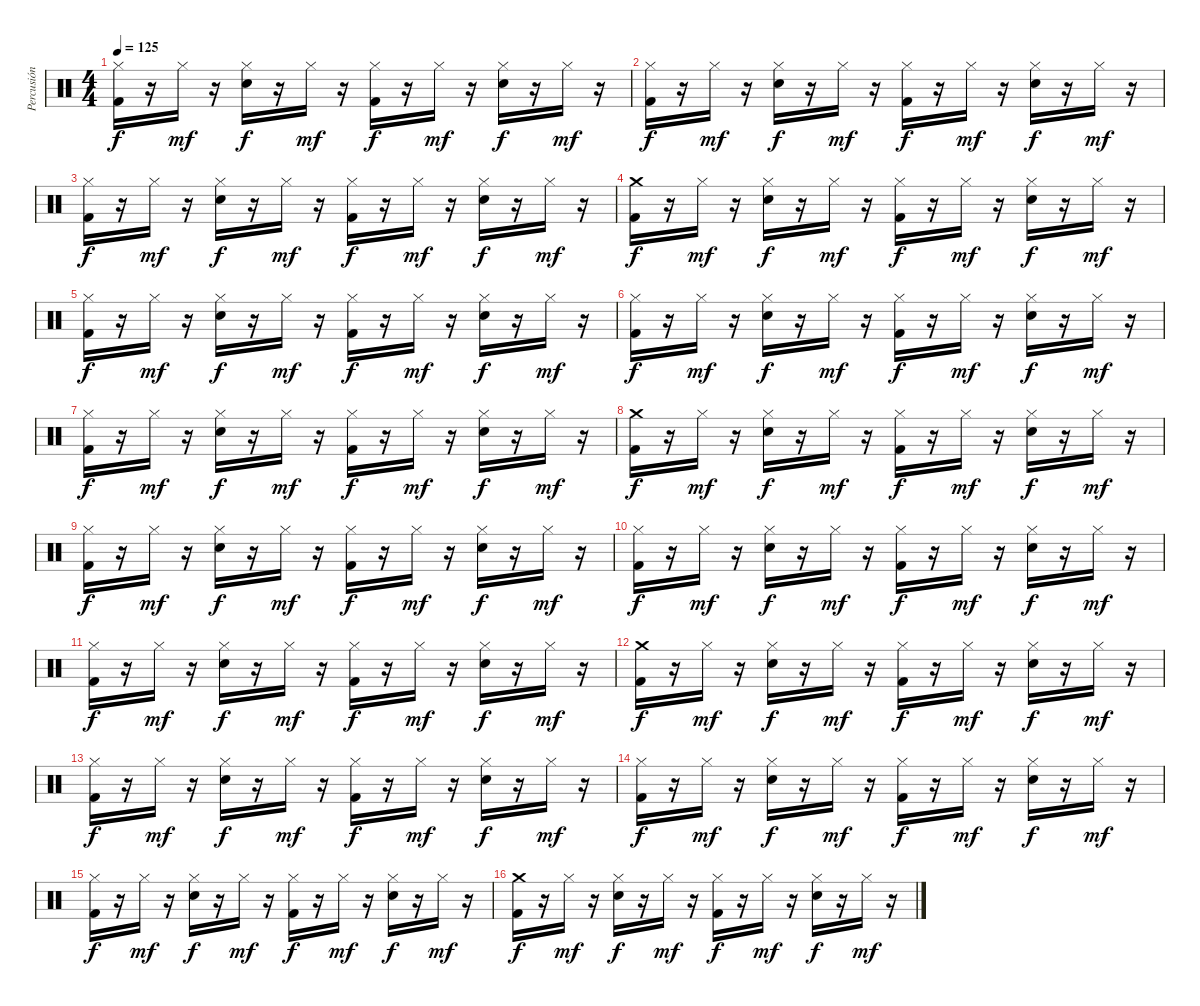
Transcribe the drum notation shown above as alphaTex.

\track ("Percusión" "Percusión") {instrument percussion}
\staff {score}
\articulation defaults
\ts (4 4)
\tempo 125
\clef neutral
\ks c
("Hi-Hat (closed)" "Kick (hit) 2").16{dy f} r.16 "Hi-Hat (closed)".16{dy mf} r.16 ("Hi-Hat (closed)" "Electric Snare (hit)").16{dy f} r.16 "Hi-Hat (closed)".16{dy mf} r.16 ("Hi-Hat (closed)" "Kick (hit) 2").16{dy f} r.16 "Hi-Hat (closed)".16{dy mf} r.16 ("Hi-Hat (closed)" "Electric Snare (hit)").16{dy f} r.16 "Hi-Hat (closed)".16{dy mf} r.16 |
("Hi-Hat (closed)" "Kick (hit) 2").16{dy f} r.16 "Hi-Hat (closed)".16{dy mf} r.16 ("Hi-Hat (closed)" "Electric Snare (hit)").16{dy f} r.16 "Hi-Hat (closed)".16{dy mf} r.16 ("Hi-Hat (closed)" "Kick (hit) 2").16{dy f} r.16 "Hi-Hat (closed)".16{dy mf} r.16 ("Hi-Hat (closed)" "Electric Snare (hit)").16{dy f} r.16 "Hi-Hat (closed)".16{dy mf} r.16 |
("Hi-Hat (closed)" "Kick (hit) 2").16{dy f} r.16 "Hi-Hat (closed)".16{dy mf} r.16 ("Hi-Hat (closed)" "Electric Snare (hit)").16{dy f} r.16 "Hi-Hat (closed)".16{dy mf} r.16 ("Hi-Hat (closed)" "Kick (hit) 2").16{dy f} r.16 "Hi-Hat (closed)".16{dy mf} r.16 ("Hi-Hat (closed)" "Electric Snare (hit)").16{dy f} r.16 "Hi-Hat (closed)".16{dy mf} r.16 |
("Crash medium (hit)" "Kick (hit) 2").16{dy f} r.16 "Hi-Hat (closed)".16{dy mf} r.16 ("Hi-Hat (closed)" "Electric Snare (hit)").16{dy f} r.16 "Hi-Hat (closed)".16{dy mf} r.16 ("Hi-Hat (closed)" "Kick (hit) 2").16{dy f} r.16 "Hi-Hat (closed)".16{dy mf} r.16 ("Hi-Hat (closed)" "Electric Snare (hit)").16{dy f} r.16 "Hi-Hat (closed)".16{dy mf} r.16 |
("Hi-Hat (closed)" "Kick (hit) 2").16{dy f} r.16 "Hi-Hat (closed)".16{dy mf} r.16 ("Hi-Hat (closed)" "Electric Snare (hit)").16{dy f} r.16 "Hi-Hat (closed)".16{dy mf} r.16 ("Hi-Hat (closed)" "Kick (hit) 2").16{dy f} r.16 "Hi-Hat (closed)".16{dy mf} r.16 ("Hi-Hat (closed)" "Electric Snare (hit)").16{dy f} r.16 "Hi-Hat (closed)".16{dy mf} r.16 |
("Hi-Hat (closed)" "Kick (hit) 2").16{dy f} r.16 "Hi-Hat (closed)".16{dy mf} r.16 ("Hi-Hat (closed)" "Electric Snare (hit)").16{dy f} r.16 "Hi-Hat (closed)".16{dy mf} r.16 ("Hi-Hat (closed)" "Kick (hit) 2").16{dy f} r.16 "Hi-Hat (closed)".16{dy mf} r.16 ("Hi-Hat (closed)" "Electric Snare (hit)").16{dy f} r.16 "Hi-Hat (closed)".16{dy mf} r.16 |
("Hi-Hat (closed)" "Kick (hit) 2").16{dy f} r.16 "Hi-Hat (closed)".16{dy mf} r.16 ("Hi-Hat (closed)" "Electric Snare (hit)").16{dy f} r.16 "Hi-Hat (closed)".16{dy mf} r.16 ("Hi-Hat (closed)" "Kick (hit) 2").16{dy f} r.16 "Hi-Hat (closed)".16{dy mf} r.16 ("Hi-Hat (closed)" "Electric Snare (hit)").16{dy f} r.16 "Hi-Hat (closed)".16{dy mf} r.16 |
("Crash medium (hit)" "Kick (hit) 2").16{dy f} r.16 "Hi-Hat (closed)".16{dy mf} r.16 ("Hi-Hat (closed)" "Electric Snare (hit)").16{dy f} r.16 "Hi-Hat (closed)".16{dy mf} r.16 ("Hi-Hat (closed)" "Kick (hit) 2").16{dy f} r.16 "Hi-Hat (closed)".16{dy mf} r.16 ("Hi-Hat (closed)" "Electric Snare (hit)").16{dy f} r.16 "Hi-Hat (closed)".16{dy mf} r.16 |
("Hi-Hat (closed)" "Kick (hit) 2").16{dy f} r.16 "Hi-Hat (closed)".16{dy mf} r.16 ("Hi-Hat (closed)" "Electric Snare (hit)").16{dy f} r.16 "Hi-Hat (closed)".16{dy mf} r.16 ("Hi-Hat (closed)" "Kick (hit) 2").16{dy f} r.16 "Hi-Hat (closed)".16{dy mf} r.16 ("Hi-Hat (closed)" "Electric Snare (hit)").16{dy f} r.16 "Hi-Hat (closed)".16{dy mf} r.16 |
("Hi-Hat (closed)" "Kick (hit) 2").16{dy f} r.16 "Hi-Hat (closed)".16{dy mf} r.16 ("Hi-Hat (closed)" "Electric Snare (hit)").16{dy f} r.16 "Hi-Hat (closed)".16{dy mf} r.16 ("Hi-Hat (closed)" "Kick (hit) 2").16{dy f} r.16 "Hi-Hat (closed)".16{dy mf} r.16 ("Hi-Hat (closed)" "Electric Snare (hit)").16{dy f} r.16 "Hi-Hat (closed)".16{dy mf} r.16 |
("Hi-Hat (closed)" "Kick (hit) 2").16{dy f} r.16 "Hi-Hat (closed)".16{dy mf} r.16 ("Hi-Hat (closed)" "Electric Snare (hit)").16{dy f} r.16 "Hi-Hat (closed)".16{dy mf} r.16 ("Hi-Hat (closed)" "Kick (hit) 2").16{dy f} r.16 "Hi-Hat (closed)".16{dy mf} r.16 ("Hi-Hat (closed)" "Electric Snare (hit)").16{dy f} r.16 "Hi-Hat (closed)".16{dy mf} r.16 |
("Crash medium (hit)" "Kick (hit) 2").16{dy f} r.16 "Hi-Hat (closed)".16{dy mf} r.16 ("Hi-Hat (closed)" "Electric Snare (hit)").16{dy f} r.16 "Hi-Hat (closed)".16{dy mf} r.16 ("Hi-Hat (closed)" "Kick (hit) 2").16{dy f} r.16 "Hi-Hat (closed)".16{dy mf} r.16 ("Hi-Hat (closed)" "Electric Snare (hit)").16{dy f} r.16 "Hi-Hat (closed)".16{dy mf} r.16 |
("Hi-Hat (closed)" "Kick (hit) 2").16{dy f} r.16 "Hi-Hat (closed)".16{dy mf} r.16 ("Hi-Hat (closed)" "Electric Snare (hit)").16{dy f} r.16 "Hi-Hat (closed)".16{dy mf} r.16 ("Hi-Hat (closed)" "Kick (hit) 2").16{dy f} r.16 "Hi-Hat (closed)".16{dy mf} r.16 ("Hi-Hat (closed)" "Electric Snare (hit)").16{dy f} r.16 "Hi-Hat (closed)".16{dy mf} r.16 |
("Hi-Hat (closed)" "Kick (hit) 2").16{dy f} r.16 "Hi-Hat (closed)".16{dy mf} r.16 ("Hi-Hat (closed)" "Electric Snare (hit)").16{dy f} r.16 "Hi-Hat (closed)".16{dy mf} r.16 ("Hi-Hat (closed)" "Kick (hit) 2").16{dy f} r.16 "Hi-Hat (closed)".16{dy mf} r.16 ("Hi-Hat (closed)" "Electric Snare (hit)").16{dy f} r.16 "Hi-Hat (closed)".16{dy mf} r.16 |
("Hi-Hat (closed)" "Kick (hit) 2").16{dy f} r.16 "Hi-Hat (closed)".16{dy mf} r.16 ("Hi-Hat (closed)" "Electric Snare (hit)").16{dy f} r.16 "Hi-Hat (closed)".16{dy mf} r.16 ("Hi-Hat (closed)" "Kick (hit) 2").16{dy f} r.16 "Hi-Hat (closed)".16{dy mf} r.16 ("Hi-Hat (closed)" "Electric Snare (hit)").16{dy f} r.16 "Hi-Hat (closed)".16{dy mf} r.16 |
("Crash medium (hit)" "Kick (hit) 2").16{dy f} r.16 "Hi-Hat (closed)".16{dy mf} r.16 ("Hi-Hat (closed)" "Electric Snare (hit)").16{dy f} r.16 "Hi-Hat (closed)".16{dy mf} r.16 ("Hi-Hat (closed)" "Kick (hit) 2").16{dy f} r.16 "Hi-Hat (closed)".16{dy mf} r.16 ("Hi-Hat (closed)" "Electric Snare (hit)").16{dy f} r.16 "Hi-Hat (closed)".16{dy mf} r.16
